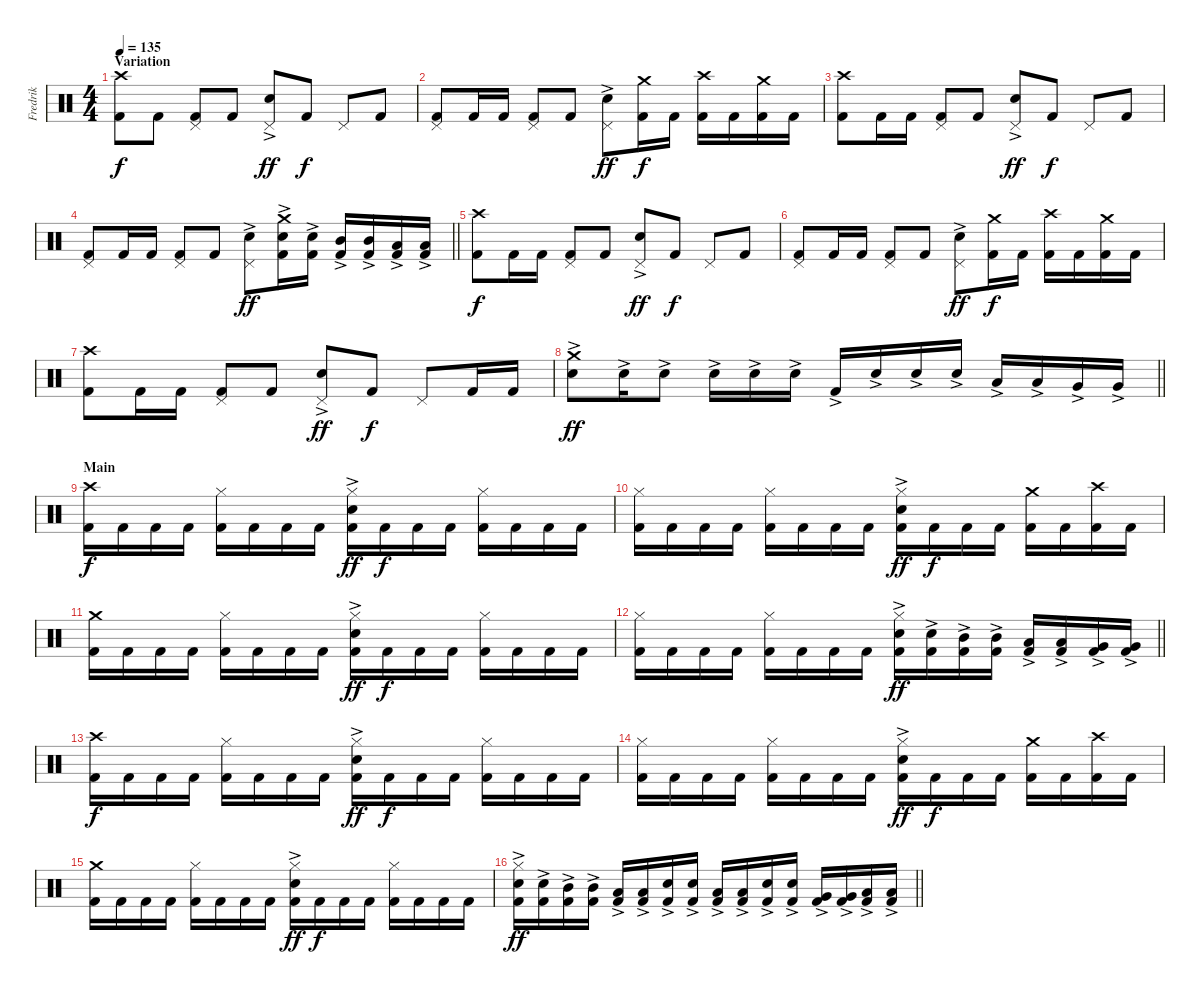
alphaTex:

\track ("Fredrik" "Fredrik") {instrument percussion}
\staff {score}
\articulation defaults
\ts (4 4)
\section ("" "Variation")
\tempo 135
\clef neutral
\ks c
("Kick (hit) 2" "Crash high (hit)").8{dy f} "Kick (hit) 2".8 ("Kick (hit) 2" "Pedal Hi-Hat (hit)").8 "Kick (hit) 2".8 ("Snare (hit) 2"{ac} "Pedal Hi-Hat (hit)").8{dy ff} "Kick (hit) 2".8{dy f} "Pedal Hi-Hat (hit)".8 "Kick (hit) 2".8 |
("Kick (hit) 2" "Pedal Hi-Hat (hit)").8 "Kick (hit) 2".16 "Kick (hit) 2".16 ("Kick (hit) 2" "Pedal Hi-Hat (hit)").8 "Kick (hit) 2".8 ("Snare (hit) 2"{ac} "Pedal Hi-Hat (hit)").8{dy ff} ("Kick (hit) 2" "Crash medium (hit)").16{dy f} "Kick (hit) 2".16 ("Kick (hit) 2" "Crash high (hit)").16 "Kick (hit) 2".16 ("Kick (hit) 2" "Crash medium (hit)").16 "Kick (hit) 2".16 |
("Kick (hit) 2" "Crash high (hit)").8 "Kick (hit) 2".16 "Kick (hit) 2".16 ("Kick (hit) 2" "Pedal Hi-Hat (hit)").8 "Kick (hit) 2".8 ("Snare (hit) 2"{ac} "Pedal Hi-Hat (hit)").8{dy ff} "Kick (hit) 2".8{dy f} "Pedal Hi-Hat (hit)".8 "Kick (hit) 2".8 |
\barLineRight lightlight
("Kick (hit) 2" "Pedal Hi-Hat (hit)").8 "Kick (hit) 2".16 "Kick (hit) 2".16 ("Kick (hit) 2" "Pedal Hi-Hat (hit)").8 "Kick (hit) 2".8 ("Snare (hit) 2"{ac} "Pedal Hi-Hat (hit)").8{dy ff} ("Kick (hit) 2" "Snare (hit) 2"{ac} "Crash medium (hit)").16 ("Kick (hit) 2" "Snare (hit) 2"{ac}).16 ("Kick (hit) 2" "Mid Tom (hit)"{ac}).16 ("Kick (hit) 2" "Mid Tom (hit)"{ac}).16 ("Kick (hit) 2" "Low Tom (hit)"{ac}).16 ("Kick (hit) 2" "Low Tom (hit)"{ac}).16 |
\section ("" "")
("Kick (hit) 2" "Crash high (hit)").8{dy f} "Kick (hit) 2".16 "Kick (hit) 2".16 ("Kick (hit) 2" "Pedal Hi-Hat (hit)").8 "Kick (hit) 2".8 ("Snare (hit) 2"{ac} "Pedal Hi-Hat (hit)").8{dy ff} "Kick (hit) 2".8{dy f} "Pedal Hi-Hat (hit)".8 "Kick (hit) 2".8 |
("Kick (hit) 2" "Pedal Hi-Hat (hit)").8 "Kick (hit) 2".16 "Kick (hit) 2".16 ("Kick (hit) 2" "Pedal Hi-Hat (hit)").8 "Kick (hit) 2".8 ("Snare (hit) 2"{ac} "Pedal Hi-Hat (hit)").8{dy ff} ("Kick (hit) 2" "Crash medium (hit)").16{dy f} "Kick (hit) 2".16 ("Kick (hit) 2" "Crash high (hit)").16 "Kick (hit) 2".16 ("Kick (hit) 2" "Crash medium (hit)").16 "Kick (hit) 2".16 |
("Kick (hit) 2" "Crash high (hit)").8 "Kick (hit) 2".16 "Kick (hit) 2".16 ("Kick (hit) 2" "Pedal Hi-Hat (hit)").8 "Kick (hit) 2".8 ("Snare (hit) 2"{ac} "Pedal Hi-Hat (hit)").8{dy ff} "Kick (hit) 2".8{dy f} "Pedal Hi-Hat (hit)".8 "Kick (hit) 2".16 "Kick (hit) 2".16 |
\barLineRight lightlight
("Snare (hit) 2"{ac} "Crash medium (hit)").8{dy ff} "Snare (hit) 2"{ac}.16 "Snare (hit) 2"{ac}.8 "Snare (hit) 2"{ac}.16 "Snare (hit) 2"{ac}.16 "Snare (hit) 2"{ac}.16 "Kick (hit) 2"{ac}.16 "Snare (hit) 2"{ac}.16 "Snare (hit) 2"{ac}.16 "Snare (hit) 2"{ac}.16 "Low Tom (hit)"{ac}.16 "Low Tom (hit)"{ac}.16 "Very Low Tom (hit)"{ac}.16 "Very Low Tom (hit)"{ac}.16 |
\section ("" "Main")
("Kick (hit) 2" "Crash high (hit)").16{dy f} "Kick (hit) 2".16 "Kick (hit) 2".16 "Kick (hit) 2".16 ("Kick (hit) 2" "Hi-Hat (closed)").16 "Kick (hit) 2".16 "Kick (hit) 2".16 "Kick (hit) 2".16 ("Kick (hit) 2" "Snare (hit) 2"{ac} "Hi-Hat (closed)").16{dy ff} "Kick (hit) 2".16{dy f} "Kick (hit) 2".16 "Kick (hit) 2".16 ("Kick (hit) 2" "Hi-Hat (closed)").16 "Kick (hit) 2".16 "Kick (hit) 2".16 "Kick (hit) 2".16 |
("Kick (hit) 2" "Hi-Hat (closed)").16 "Kick (hit) 2".16 "Kick (hit) 2".16 "Kick (hit) 2".16 ("Kick (hit) 2" "Hi-Hat (closed)").16 "Kick (hit) 2".16 "Kick (hit) 2".16 "Kick (hit) 2".16 ("Kick (hit) 2" "Snare (hit) 2"{ac} "Hi-Hat (closed)").16{dy ff} "Kick (hit) 2".16{dy f} "Kick (hit) 2".16 "Kick (hit) 2".16 ("Kick (hit) 2" "Crash medium (hit)").16 "Kick (hit) 2".16 ("Kick (hit) 2" "Crash high (hit)").16 "Kick (hit) 2".16 |
("Kick (hit) 2" "Crash medium (hit)").16 "Kick (hit) 2".16 "Kick (hit) 2".16 "Kick (hit) 2".16 ("Kick (hit) 2" "Hi-Hat (closed)").16 "Kick (hit) 2".16 "Kick (hit) 2".16 "Kick (hit) 2".16 ("Kick (hit) 2" "Snare (hit) 2"{ac} "Hi-Hat (closed)").16{dy ff} "Kick (hit) 2".16{dy f} "Kick (hit) 2".16 "Kick (hit) 2".16 ("Kick (hit) 2" "Hi-Hat (closed)").16 "Kick (hit) 2".16 "Kick (hit) 2".16 "Kick (hit) 2".16 |
\barLineRight lightlight
("Kick (hit) 2" "Hi-Hat (closed)").16 "Kick (hit) 2".16 "Kick (hit) 2".16 "Kick (hit) 2".16 ("Kick (hit) 2" "Hi-Hat (closed)").16 "Kick (hit) 2".16 "Kick (hit) 2".16 "Kick (hit) 2".16 ("Kick (hit) 2" "Snare (hit) 2"{ac} "Hi-Hat (closed)").16{dy ff} ("Kick (hit) 2" "Snare (hit) 2"{ac}).16 ("Kick (hit) 2" "Mid Tom (hit)"{ac}).16 ("Kick (hit) 2" "Mid Tom (hit)"{ac}).16 ("Kick (hit) 2" "Low Tom (hit)"{ac}).16 ("Kick (hit) 2" "Low Tom (hit)"{ac}).16 ("Kick (hit) 2" "Very Low Tom (hit)"{ac}).16 ("Kick (hit) 2" "Very Low Tom (hit)"{ac}).16 |
\section ("" "")
("Kick (hit) 2" "Crash high (hit)").16{dy f} "Kick (hit) 2".16 "Kick (hit) 2".16 "Kick (hit) 2".16 ("Kick (hit) 2" "Hi-Hat (closed)").16 "Kick (hit) 2".16 "Kick (hit) 2".16 "Kick (hit) 2".16 ("Kick (hit) 2" "Snare (hit) 2"{ac} "Hi-Hat (closed)").16{dy ff} "Kick (hit) 2".16{dy f} "Kick (hit) 2".16 "Kick (hit) 2".16 ("Kick (hit) 2" "Hi-Hat (closed)").16 "Kick (hit) 2".16 "Kick (hit) 2".16 "Kick (hit) 2".16 |
("Kick (hit) 2" "Hi-Hat (closed)").16 "Kick (hit) 2".16 "Kick (hit) 2".16 "Kick (hit) 2".16 ("Kick (hit) 2" "Hi-Hat (closed)").16 "Kick (hit) 2".16 "Kick (hit) 2".16 "Kick (hit) 2".16 ("Kick (hit) 2" "Snare (hit) 2"{ac} "Hi-Hat (closed)").16{dy ff} "Kick (hit) 2".16{dy f} "Kick (hit) 2".16 "Kick (hit) 2".16 ("Kick (hit) 2" "Crash medium (hit)").16 "Kick (hit) 2".16 ("Kick (hit) 2" "Crash high (hit)").16 "Kick (hit) 2".16 |
("Kick (hit) 2" "Crash medium (hit)").16 "Kick (hit) 2".16 "Kick (hit) 2".16 "Kick (hit) 2".16 ("Kick (hit) 2" "Hi-Hat (closed)").16 "Kick (hit) 2".16 "Kick (hit) 2".16 "Kick (hit) 2".16 ("Kick (hit) 2" "Snare (hit) 2"{ac} "Hi-Hat (closed)").16{dy ff} "Kick (hit) 2".16{dy f} "Kick (hit) 2".16 "Kick (hit) 2".16 ("Kick (hit) 2" "Hi-Hat (closed)").16 "Kick (hit) 2".16 "Kick (hit) 2".16 "Kick (hit) 2".16 |
\barLineRight lightlight
("Kick (hit) 2" "Snare (hit) 2"{ac} "Hi-Hat (closed)").16{dy ff} ("Kick (hit) 2" "Snare (hit) 2"{ac}).16 ("Kick (hit) 2" "Mid Tom (hit)"{ac}).16 ("Kick (hit) 2" "Mid Tom (hit)"{ac}).16 ("Kick (hit) 2" "Low Tom (hit)"{ac}).16 ("Kick (hit) 2" "Low Tom (hit)"{ac}).16 ("Kick (hit) 2" "Snare (hit) 2"{ac}).16 ("Kick (hit) 2" "Snare (hit) 2"{ac}).16 ("Kick (hit) 2" "Low Tom (hit)"{ac}).16 ("Kick (hit) 2" "Low Tom (hit)"{ac}).16 ("Kick (hit) 2" "Snare (hit) 2"{ac}).16 ("Kick (hit) 2" "Snare (hit) 2"{ac}).16 ("Kick (hit) 2" "Very Low Tom (hit)"{ac}).16 ("Kick (hit) 2" "Very Low Tom (hit)"{ac}).16 ("Kick (hit) 2" "Low Floor Tom (hit)"{ac}).16 ("Kick (hit) 2" "Low Floor Tom (hit)"{ac}).16
